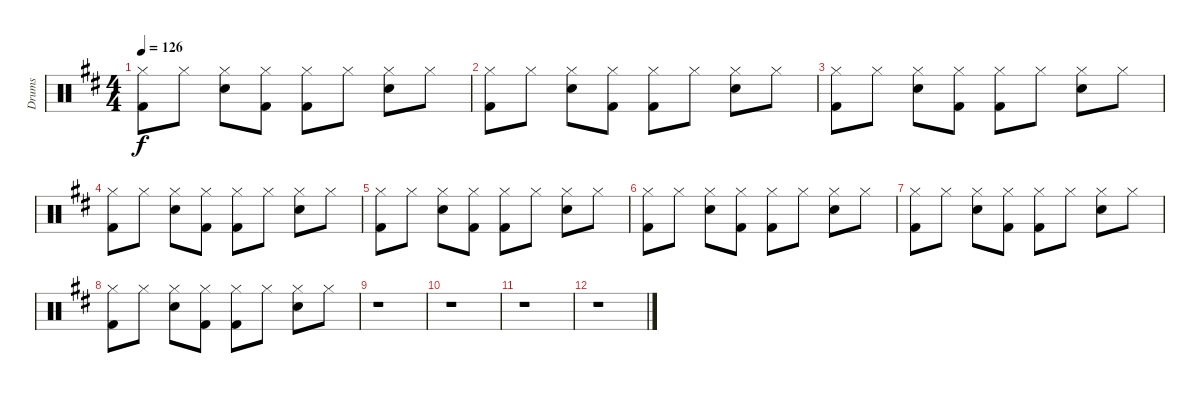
\track ("Drums" "Drums") {instrument percussion}
\staff {score}
\articulation defaults
\ts (4 4)
\tempo 126
\clef neutral
\ks d
("Kick (hit) 2" "Hi-Hat (closed)").8{dy f} "Hi-Hat (closed)".8 ("Snare (hit) 2" "Hi-Hat (closed)").8 ("Kick (hit) 2" "Hi-Hat (closed)").8 ("Kick (hit) 2" "Hi-Hat (closed)").8 "Hi-Hat (closed)".8 ("Snare (hit) 2" "Hi-Hat (closed)").8 "Hi-Hat (closed)".8 |
("Kick (hit) 2" "Hi-Hat (closed)").8 "Hi-Hat (closed)".8 ("Snare (hit) 2" "Hi-Hat (closed)").8 ("Kick (hit) 2" "Hi-Hat (closed)").8 ("Kick (hit) 2" "Hi-Hat (closed)").8 "Hi-Hat (closed)".8 ("Snare (hit) 2" "Hi-Hat (closed)").8 "Hi-Hat (closed)".8 |
("Kick (hit) 2" "Hi-Hat (closed)").8 "Hi-Hat (closed)".8 ("Snare (hit) 2" "Hi-Hat (closed)").8 ("Kick (hit) 2" "Hi-Hat (closed)").8 ("Kick (hit) 2" "Hi-Hat (closed)").8 "Hi-Hat (closed)".8 ("Snare (hit) 2" "Hi-Hat (closed)").8 "Hi-Hat (closed)".8 |
("Kick (hit) 2" "Hi-Hat (closed)").8 "Hi-Hat (closed)".8 ("Snare (hit) 2" "Hi-Hat (closed)").8 ("Kick (hit) 2" "Hi-Hat (closed)").8 ("Kick (hit) 2" "Hi-Hat (closed)").8 "Hi-Hat (closed)".8 ("Snare (hit) 2" "Hi-Hat (closed)").8 "Hi-Hat (closed)".8 |
("Kick (hit) 2" "Hi-Hat (closed)").8 "Hi-Hat (closed)".8 ("Snare (hit) 2" "Hi-Hat (closed)").8 ("Kick (hit) 2" "Hi-Hat (closed)").8 ("Kick (hit) 2" "Hi-Hat (closed)").8 "Hi-Hat (closed)".8 ("Snare (hit) 2" "Hi-Hat (closed)").8 "Hi-Hat (closed)".8 |
("Kick (hit) 2" "Hi-Hat (closed)").8 "Hi-Hat (closed)".8 ("Snare (hit) 2" "Hi-Hat (closed)").8 ("Kick (hit) 2" "Hi-Hat (closed)").8 ("Kick (hit) 2" "Hi-Hat (closed)").8 "Hi-Hat (closed)".8 ("Snare (hit) 2" "Hi-Hat (closed)").8 "Hi-Hat (closed)".8 |
("Kick (hit) 2" "Hi-Hat (closed)").8 "Hi-Hat (closed)".8 ("Snare (hit) 2" "Hi-Hat (closed)").8 ("Kick (hit) 2" "Hi-Hat (closed)").8 ("Kick (hit) 2" "Hi-Hat (closed)").8 "Hi-Hat (closed)".8 ("Snare (hit) 2" "Hi-Hat (closed)").8 "Hi-Hat (closed)".8 |
("Kick (hit) 2" "Hi-Hat (closed)").8 "Hi-Hat (closed)".8 ("Snare (hit) 2" "Hi-Hat (closed)").8 ("Kick (hit) 2" "Hi-Hat (closed)").8 ("Kick (hit) 2" "Hi-Hat (closed)").8 "Hi-Hat (closed)".8 ("Snare (hit) 2" "Hi-Hat (closed)").8 "Hi-Hat (closed)".8 |
r.1 |
r.1 |
r.1 |
r.1
